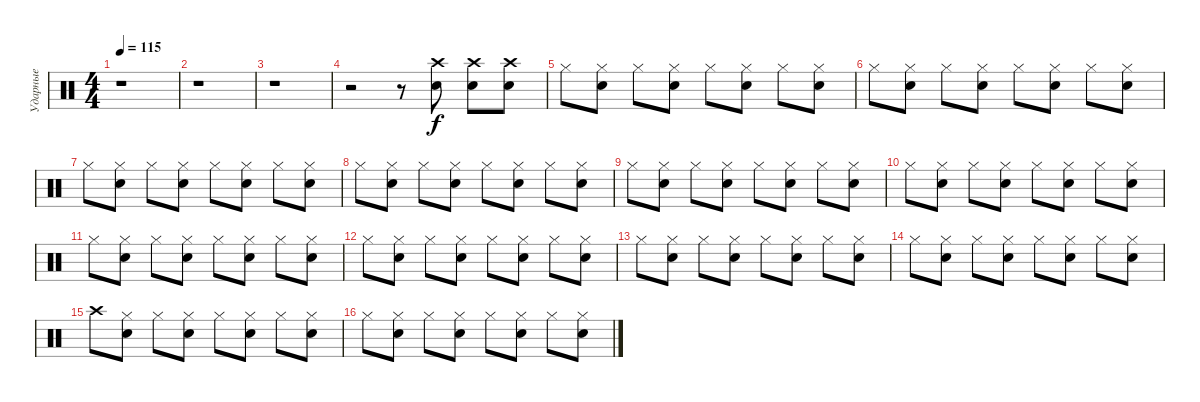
\track ("Ударные" "Ударные") {instrument percussion}
\staff {score}
\articulation defaults
\ts (4 4)
\tempo 115
\clef neutral
\ks c
r.1{dy f} |
r.1 |
r.1 |
r.2 r.8 ("Snare (hit) 2" "Crash high (hit)").8 ("Snare (hit) 2" "Crash high (hit)").8 ("Snare (hit) 2" "Crash high (hit)").8 |
"Hi-Hat (closed)".8 ("Hi-Hat (closed)" "Snare (hit) 2").8 "Hi-Hat (closed)".8 ("Hi-Hat (closed)" "Snare (hit) 2").8 "Hi-Hat (closed)".8 ("Hi-Hat (closed)" "Snare (hit) 2").8 "Hi-Hat (closed)".8 ("Hi-Hat (closed)" "Snare (hit) 2").8 |
"Hi-Hat (closed)".8 ("Hi-Hat (closed)" "Snare (hit) 2").8 "Hi-Hat (closed)".8 ("Hi-Hat (closed)" "Snare (hit) 2").8 "Hi-Hat (closed)".8 ("Hi-Hat (closed)" "Snare (hit) 2").8 "Hi-Hat (closed)".8 ("Hi-Hat (closed)" "Snare (hit) 2").8 |
"Hi-Hat (closed)".8 ("Hi-Hat (closed)" "Snare (hit) 2").8 "Hi-Hat (closed)".8 ("Hi-Hat (closed)" "Snare (hit) 2").8 "Hi-Hat (closed)".8 ("Hi-Hat (closed)" "Snare (hit) 2").8 "Hi-Hat (closed)".8 ("Hi-Hat (closed)" "Snare (hit) 2").8 |
"Hi-Hat (closed)".8 ("Hi-Hat (closed)" "Snare (hit) 2").8 "Hi-Hat (closed)".8 ("Hi-Hat (closed)" "Snare (hit) 2").8 "Hi-Hat (closed)".8 ("Hi-Hat (closed)" "Snare (hit) 2").8 "Hi-Hat (closed)".8 ("Hi-Hat (closed)" "Snare (hit) 2").8 |
"Hi-Hat (closed)".8 ("Hi-Hat (closed)" "Snare (hit) 2").8 "Hi-Hat (closed)".8 ("Hi-Hat (closed)" "Snare (hit) 2").8 "Hi-Hat (closed)".8 ("Hi-Hat (closed)" "Snare (hit) 2").8 "Hi-Hat (closed)".8 ("Hi-Hat (closed)" "Snare (hit) 2").8 |
"Hi-Hat (closed)".8 ("Hi-Hat (closed)" "Snare (hit) 2").8 "Hi-Hat (closed)".8 ("Hi-Hat (closed)" "Snare (hit) 2").8 "Hi-Hat (closed)".8 ("Hi-Hat (closed)" "Snare (hit) 2").8 "Hi-Hat (closed)".8 ("Hi-Hat (closed)" "Snare (hit) 2").8 |
"Hi-Hat (closed)".8 ("Hi-Hat (closed)" "Snare (hit) 2").8 "Hi-Hat (closed)".8 ("Hi-Hat (closed)" "Snare (hit) 2").8 "Hi-Hat (closed)".8 ("Hi-Hat (closed)" "Snare (hit) 2").8 "Hi-Hat (closed)".8 ("Hi-Hat (closed)" "Snare (hit) 2").8 |
"Hi-Hat (closed)".8 ("Hi-Hat (closed)" "Snare (hit) 2").8 "Hi-Hat (closed)".8 ("Hi-Hat (closed)" "Snare (hit) 2").8 "Hi-Hat (closed)".8 ("Hi-Hat (closed)" "Snare (hit) 2").8 "Hi-Hat (closed)".8 ("Hi-Hat (closed)" "Snare (hit) 2").8 |
"Hi-Hat (closed)".8 ("Hi-Hat (closed)" "Snare (hit) 2").8 "Hi-Hat (closed)".8 ("Hi-Hat (closed)" "Snare (hit) 2").8 "Hi-Hat (closed)".8 ("Hi-Hat (closed)" "Snare (hit) 2").8 "Hi-Hat (closed)".8 ("Hi-Hat (closed)" "Snare (hit) 2").8 |
"Hi-Hat (closed)".8 ("Hi-Hat (closed)" "Snare (hit) 2").8 "Hi-Hat (closed)".8 ("Hi-Hat (closed)" "Snare (hit) 2").8 "Hi-Hat (closed)".8 ("Hi-Hat (closed)" "Snare (hit) 2").8 "Hi-Hat (closed)".8 ("Hi-Hat (closed)" "Snare (hit) 2").8 |
"Crash high (hit)".8 ("Hi-Hat (closed)" "Snare (hit) 2").8 "Hi-Hat (closed)".8 ("Hi-Hat (closed)" "Snare (hit) 2").8 "Hi-Hat (closed)".8 ("Hi-Hat (closed)" "Snare (hit) 2").8 "Hi-Hat (closed)".8 ("Hi-Hat (closed)" "Snare (hit) 2").8 |
"Hi-Hat (closed)".8 ("Hi-Hat (closed)" "Snare (hit) 2").8 "Hi-Hat (closed)".8 ("Hi-Hat (closed)" "Snare (hit) 2").8 "Hi-Hat (closed)".8 ("Hi-Hat (closed)" "Snare (hit) 2").8 "Hi-Hat (closed)".8 ("Hi-Hat (closed)" "Snare (hit) 2").8
